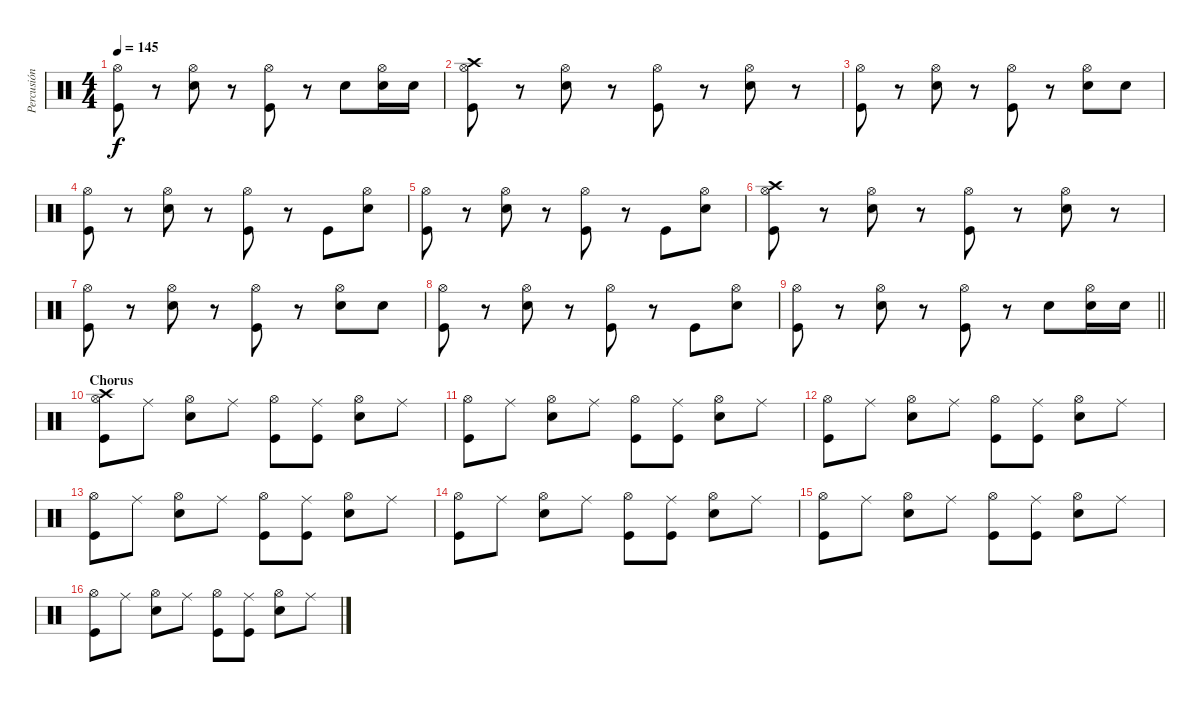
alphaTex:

\track ("Percusión" "Percusión") {instrument percussion}
\staff {score}
\articulation defaults
\ts (4 4)
\tempo 145
\clef neutral
\ks c
("Hi-Hat (open)" "Kick (hit)").8{dy f} r.8 ("Hi-Hat (open)" "Electric Snare (hit)").8 r.8 ("Hi-Hat (open)" "Kick (hit)").8 r.8 "Electric Snare (hit)".8 ("Hi-Hat (open)" "Electric Snare (hit)").16 "Electric Snare (hit)".16 |
("Crash high (hit)" "Hi-Hat (open)" "Kick (hit)").8 r.8 ("Hi-Hat (open)" "Electric Snare (hit)").8 r.8 ("Hi-Hat (open)" "Kick (hit)").8 r.8 ("Hi-Hat (open)" "Electric Snare (hit)").8 r.8 |
("Hi-Hat (open)" "Kick (hit)").8 r.8 ("Hi-Hat (open)" "Electric Snare (hit)").8 r.8 ("Hi-Hat (open)" "Kick (hit)").8 r.8 ("Hi-Hat (open)" "Electric Snare (hit)").8 "Electric Snare (hit)".8 |
("Hi-Hat (open)" "Kick (hit)").8 r.8 ("Hi-Hat (open)" "Electric Snare (hit)").8 r.8 ("Hi-Hat (open)" "Kick (hit)").8 r.8 "Kick (hit)".8 ("Hi-Hat (open)" "Electric Snare (hit)").8 |
("Hi-Hat (open)" "Kick (hit)").8 r.8 ("Hi-Hat (open)" "Electric Snare (hit)").8 r.8 ("Hi-Hat (open)" "Kick (hit)").8 r.8 "Kick (hit)".8 ("Hi-Hat (open)" "Electric Snare (hit)").8 |
("Crash high (hit)" "Hi-Hat (open)" "Kick (hit)").8 r.8 ("Hi-Hat (open)" "Electric Snare (hit)").8 r.8 ("Hi-Hat (open)" "Kick (hit)").8 r.8 ("Hi-Hat (open)" "Electric Snare (hit)").8 r.8 |
("Hi-Hat (open)" "Kick (hit)").8 r.8 ("Hi-Hat (open)" "Electric Snare (hit)").8 r.8 ("Hi-Hat (open)" "Kick (hit)").8 r.8 ("Hi-Hat (open)" "Electric Snare (hit)").8 "Electric Snare (hit)".8 |
("Hi-Hat (open)" "Kick (hit)").8 r.8 ("Hi-Hat (open)" "Electric Snare (hit)").8 r.8 ("Hi-Hat (open)" "Kick (hit)").8 r.8 "Kick (hit)".8 ("Hi-Hat (open)" "Electric Snare (hit)").8 |
\barLineRight lightlight
("Hi-Hat (open)" "Kick (hit)").8 r.8 ("Hi-Hat (open)" "Electric Snare (hit)").8 r.8 ("Hi-Hat (open)" "Kick (hit)").8 r.8 "Electric Snare (hit)".8 ("Hi-Hat (open)" "Electric Snare (hit)").16 "Electric Snare (hit)".16 |
\section ("" "Chorus")
("Hi-Hat (open)" "Crash high (hit)" "Kick (hit)").8 "Ride (middle)".8 ("Hi-Hat (open)" "Electric Snare (hit)").8 "Ride (middle)".8 ("Hi-Hat (open)" "Kick (hit)").8 ("Ride (middle)" "Kick (hit)").8 ("Hi-Hat (open)" "Electric Snare (hit)").8 "Ride (middle)".8 |
("Hi-Hat (open)" "Kick (hit)").8 "Ride (middle)".8 ("Hi-Hat (open)" "Electric Snare (hit)").8 "Ride (middle)".8 ("Hi-Hat (open)" "Kick (hit)").8 ("Ride (middle)" "Kick (hit)").8 ("Hi-Hat (open)" "Electric Snare (hit)").8 "Ride (middle)".8 |
("Hi-Hat (open)" "Kick (hit)").8 "Ride (middle)".8 ("Hi-Hat (open)" "Electric Snare (hit)").8 "Ride (middle)".8 ("Hi-Hat (open)" "Kick (hit)").8 ("Ride (middle)" "Kick (hit)").8 ("Hi-Hat (open)" "Electric Snare (hit)").8 "Ride (middle)".8 |
("Hi-Hat (open)" "Kick (hit)").8 "Ride (middle)".8 ("Hi-Hat (open)" "Electric Snare (hit)").8 "Ride (middle)".8 ("Hi-Hat (open)" "Kick (hit)").8 ("Ride (middle)" "Kick (hit)").8 ("Hi-Hat (open)" "Electric Snare (hit)").8 "Ride (middle)".8 |
("Hi-Hat (open)" "Kick (hit)").8 "Ride (middle)".8 ("Hi-Hat (open)" "Electric Snare (hit)").8 "Ride (middle)".8 ("Hi-Hat (open)" "Kick (hit)").8 ("Ride (middle)" "Kick (hit)").8 ("Hi-Hat (open)" "Electric Snare (hit)").8 "Ride (middle)".8 |
("Hi-Hat (open)" "Kick (hit)").8 "Ride (middle)".8 ("Hi-Hat (open)" "Electric Snare (hit)").8 "Ride (middle)".8 ("Hi-Hat (open)" "Kick (hit)").8 ("Ride (middle)" "Kick (hit)").8 ("Hi-Hat (open)" "Electric Snare (hit)").8 "Ride (middle)".8 |
("Hi-Hat (open)" "Kick (hit)").8 "Ride (middle)".8 ("Hi-Hat (open)" "Electric Snare (hit)").8 "Ride (middle)".8 ("Hi-Hat (open)" "Kick (hit)").8 ("Ride (middle)" "Kick (hit)").8 ("Hi-Hat (open)" "Electric Snare (hit)").8 "Ride (middle)".8
